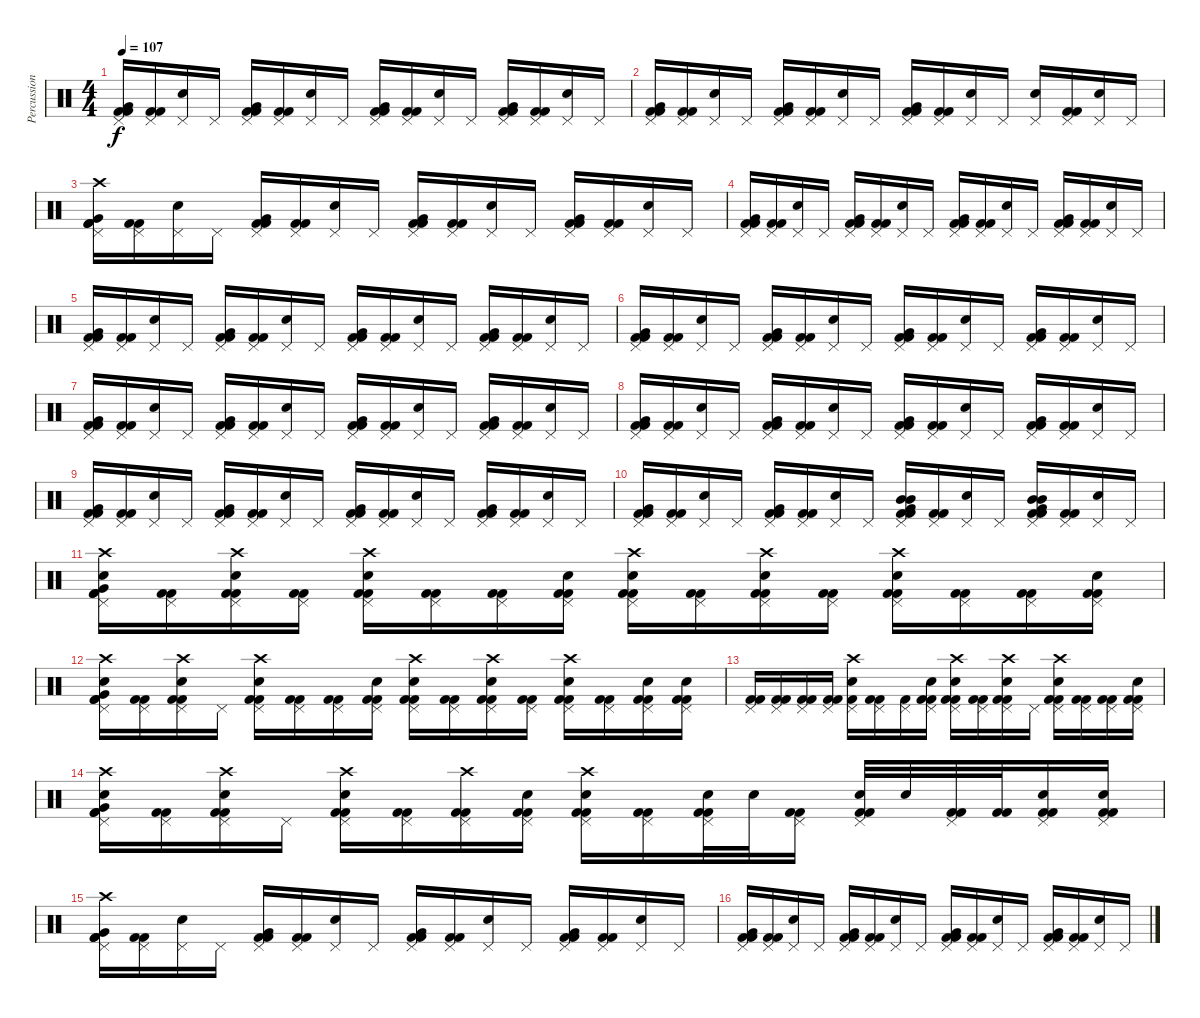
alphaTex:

\track ("Percussion" "Percussion") {instrument percussion}
\staff {score}
\articulation defaults
\ts (4 4)
\tempo 107
\clef neutral
\ks c
("Pedal Hi-Hat (hit)" "Very Low Tom (hit)" "Kick (hit) 2" "Kick (hit) 2").16{dy f} ("Pedal Hi-Hat (hit)" "Kick (hit) 2" "Kick (hit) 2").16 ("Pedal Hi-Hat (hit)" "Electric Snare (hit)").16 "Pedal Hi-Hat (hit)".16 ("Pedal Hi-Hat (hit)" "Very Low Tom (hit)" "Kick (hit) 2" "Kick (hit) 2").16 ("Pedal Hi-Hat (hit)" "Kick (hit) 2" "Kick (hit) 2").16 ("Pedal Hi-Hat (hit)" "Electric Snare (hit)").16 "Pedal Hi-Hat (hit)".16 ("Pedal Hi-Hat (hit)" "Very Low Tom (hit)" "Kick (hit) 2" "Kick (hit) 2").16 ("Pedal Hi-Hat (hit)" "Kick (hit) 2" "Kick (hit) 2").16 ("Pedal Hi-Hat (hit)" "Electric Snare (hit)").16 "Pedal Hi-Hat (hit)".16 ("Pedal Hi-Hat (hit)" "Very Low Tom (hit)" "Kick (hit) 2" "Kick (hit) 2").16 ("Pedal Hi-Hat (hit)" "Kick (hit) 2" "Kick (hit) 2").16 ("Pedal Hi-Hat (hit)" "Electric Snare (hit)").16 "Pedal Hi-Hat (hit)".16 |
("Pedal Hi-Hat (hit)" "Very Low Tom (hit)" "Kick (hit) 2" "Kick (hit) 2").16 ("Pedal Hi-Hat (hit)" "Kick (hit) 2" "Kick (hit) 2").16 ("Pedal Hi-Hat (hit)" "Electric Snare (hit)").16 "Pedal Hi-Hat (hit)".16 ("Pedal Hi-Hat (hit)" "Very Low Tom (hit)" "Kick (hit) 2" "Kick (hit) 2").16 ("Pedal Hi-Hat (hit)" "Kick (hit) 2" "Kick (hit) 2").16 ("Pedal Hi-Hat (hit)" "Electric Snare (hit)").16 "Pedal Hi-Hat (hit)".16 ("Pedal Hi-Hat (hit)" "Very Low Tom (hit)" "Kick (hit) 2" "Kick (hit) 2").16 ("Pedal Hi-Hat (hit)" "Kick (hit) 2" "Kick (hit) 2").16 ("Pedal Hi-Hat (hit)" "Electric Snare (hit)").16 "Pedal Hi-Hat (hit)".16 ("Pedal Hi-Hat (hit)" "Electric Snare (hit)").16 ("Pedal Hi-Hat (hit)" "Kick (hit) 2" "Kick (hit) 2").16 ("Pedal Hi-Hat (hit)" "Electric Snare (hit)").16 "Pedal Hi-Hat (hit)".16 |
("Pedal Hi-Hat (hit)" "Crash high (hit)" "Very Low Tom (hit)" "Kick (hit) 2" "Kick (hit) 2").16 ("Pedal Hi-Hat (hit)" "Kick (hit) 2" "Kick (hit) 2").16 ("Pedal Hi-Hat (hit)" "Electric Snare (hit)").16 "Pedal Hi-Hat (hit)".16 ("Pedal Hi-Hat (hit)" "Very Low Tom (hit)" "Kick (hit) 2" "Kick (hit) 2").16 ("Pedal Hi-Hat (hit)" "Kick (hit) 2" "Kick (hit) 2").16 ("Pedal Hi-Hat (hit)" "Electric Snare (hit)").16 "Pedal Hi-Hat (hit)".16 ("Pedal Hi-Hat (hit)" "Very Low Tom (hit)" "Kick (hit) 2" "Kick (hit) 2").16 ("Pedal Hi-Hat (hit)" "Kick (hit) 2" "Kick (hit) 2").16 ("Pedal Hi-Hat (hit)" "Electric Snare (hit)").16 "Pedal Hi-Hat (hit)".16 ("Pedal Hi-Hat (hit)" "Very Low Tom (hit)" "Kick (hit) 2" "Kick (hit) 2").16 ("Pedal Hi-Hat (hit)" "Kick (hit) 2" "Kick (hit) 2").16 ("Pedal Hi-Hat (hit)" "Electric Snare (hit)").16 "Pedal Hi-Hat (hit)".16 |
("Pedal Hi-Hat (hit)" "Very Low Tom (hit)" "Kick (hit) 2" "Kick (hit) 2").16 ("Pedal Hi-Hat (hit)" "Kick (hit) 2" "Kick (hit) 2").16 ("Pedal Hi-Hat (hit)" "Electric Snare (hit)").16 "Pedal Hi-Hat (hit)".16 ("Pedal Hi-Hat (hit)" "Very Low Tom (hit)" "Kick (hit) 2" "Kick (hit) 2").16 ("Pedal Hi-Hat (hit)" "Kick (hit) 2" "Kick (hit) 2").16 ("Pedal Hi-Hat (hit)" "Electric Snare (hit)").16 "Pedal Hi-Hat (hit)".16 ("Pedal Hi-Hat (hit)" "Very Low Tom (hit)" "Kick (hit) 2" "Kick (hit) 2").16 ("Pedal Hi-Hat (hit)" "Kick (hit) 2" "Kick (hit) 2").16 ("Pedal Hi-Hat (hit)" "Electric Snare (hit)").16 "Pedal Hi-Hat (hit)".16 ("Pedal Hi-Hat (hit)" "Very Low Tom (hit)" "Kick (hit) 2" "Kick (hit) 2").16 ("Pedal Hi-Hat (hit)" "Kick (hit) 2" "Kick (hit) 2").16 ("Pedal Hi-Hat (hit)" "Electric Snare (hit)").16 "Pedal Hi-Hat (hit)".16 |
("Pedal Hi-Hat (hit)" "Very Low Tom (hit)" "Kick (hit) 2" "Kick (hit) 2").16 ("Pedal Hi-Hat (hit)" "Kick (hit) 2" "Kick (hit) 2").16 ("Pedal Hi-Hat (hit)" "Electric Snare (hit)").16 "Pedal Hi-Hat (hit)".16 ("Pedal Hi-Hat (hit)" "Very Low Tom (hit)" "Kick (hit) 2" "Kick (hit) 2").16 ("Pedal Hi-Hat (hit)" "Kick (hit) 2" "Kick (hit) 2").16 ("Pedal Hi-Hat (hit)" "Electric Snare (hit)").16 "Pedal Hi-Hat (hit)".16 ("Pedal Hi-Hat (hit)" "Very Low Tom (hit)" "Kick (hit) 2" "Kick (hit) 2").16 ("Pedal Hi-Hat (hit)" "Kick (hit) 2" "Kick (hit) 2").16 ("Pedal Hi-Hat (hit)" "Electric Snare (hit)").16 "Pedal Hi-Hat (hit)".16 ("Pedal Hi-Hat (hit)" "Very Low Tom (hit)" "Kick (hit) 2" "Kick (hit) 2").16 ("Pedal Hi-Hat (hit)" "Kick (hit) 2" "Kick (hit) 2").16 ("Pedal Hi-Hat (hit)" "Electric Snare (hit)").16 "Pedal Hi-Hat (hit)".16 |
("Pedal Hi-Hat (hit)" "Very Low Tom (hit)" "Kick (hit) 2" "Kick (hit) 2").16 ("Pedal Hi-Hat (hit)" "Kick (hit) 2" "Kick (hit) 2").16 ("Pedal Hi-Hat (hit)" "Electric Snare (hit)").16 "Pedal Hi-Hat (hit)".16 ("Pedal Hi-Hat (hit)" "Very Low Tom (hit)" "Kick (hit) 2" "Kick (hit) 2").16 ("Pedal Hi-Hat (hit)" "Kick (hit) 2" "Kick (hit) 2").16 ("Pedal Hi-Hat (hit)" "Electric Snare (hit)").16 "Pedal Hi-Hat (hit)".16 ("Pedal Hi-Hat (hit)" "Very Low Tom (hit)" "Kick (hit) 2" "Kick (hit) 2").16 ("Pedal Hi-Hat (hit)" "Kick (hit) 2" "Kick (hit) 2").16 ("Pedal Hi-Hat (hit)" "Electric Snare (hit)").16 "Pedal Hi-Hat (hit)".16 ("Pedal Hi-Hat (hit)" "Very Low Tom (hit)" "Kick (hit) 2" "Kick (hit) 2").16 ("Pedal Hi-Hat (hit)" "Kick (hit) 2" "Kick (hit) 2").16 ("Pedal Hi-Hat (hit)" "Electric Snare (hit)").16 "Pedal Hi-Hat (hit)".16 |
("Pedal Hi-Hat (hit)" "Very Low Tom (hit)" "Kick (hit) 2" "Kick (hit) 2").16 ("Pedal Hi-Hat (hit)" "Kick (hit) 2" "Kick (hit) 2").16 ("Pedal Hi-Hat (hit)" "Electric Snare (hit)").16 "Pedal Hi-Hat (hit)".16 ("Pedal Hi-Hat (hit)" "Very Low Tom (hit)" "Kick (hit) 2" "Kick (hit) 2").16 ("Pedal Hi-Hat (hit)" "Kick (hit) 2" "Kick (hit) 2").16 ("Pedal Hi-Hat (hit)" "Electric Snare (hit)").16 "Pedal Hi-Hat (hit)".16 ("Pedal Hi-Hat (hit)" "Very Low Tom (hit)" "Kick (hit) 2" "Kick (hit) 2").16 ("Pedal Hi-Hat (hit)" "Kick (hit) 2" "Kick (hit) 2").16 ("Pedal Hi-Hat (hit)" "Electric Snare (hit)").16 "Pedal Hi-Hat (hit)".16 ("Pedal Hi-Hat (hit)" "Very Low Tom (hit)" "Kick (hit) 2" "Kick (hit) 2").16 ("Pedal Hi-Hat (hit)" "Kick (hit) 2" "Kick (hit) 2").16 ("Pedal Hi-Hat (hit)" "Electric Snare (hit)").16 "Pedal Hi-Hat (hit)".16 |
("Pedal Hi-Hat (hit)" "Very Low Tom (hit)" "Kick (hit) 2" "Kick (hit) 2").16 ("Pedal Hi-Hat (hit)" "Kick (hit) 2" "Kick (hit) 2").16 ("Pedal Hi-Hat (hit)" "Electric Snare (hit)").16 "Pedal Hi-Hat (hit)".16 ("Pedal Hi-Hat (hit)" "Very Low Tom (hit)" "Kick (hit) 2" "Kick (hit) 2").16 ("Pedal Hi-Hat (hit)" "Kick (hit) 2" "Kick (hit) 2").16 ("Pedal Hi-Hat (hit)" "Electric Snare (hit)").16 "Pedal Hi-Hat (hit)".16 ("Pedal Hi-Hat (hit)" "Very Low Tom (hit)" "Kick (hit) 2" "Kick (hit) 2").16 ("Pedal Hi-Hat (hit)" "Kick (hit) 2" "Kick (hit) 2").16 ("Pedal Hi-Hat (hit)" "Electric Snare (hit)").16 "Pedal Hi-Hat (hit)".16 ("Pedal Hi-Hat (hit)" "Very Low Tom (hit)" "Kick (hit) 2" "Kick (hit) 2").16 ("Pedal Hi-Hat (hit)" "Kick (hit) 2" "Kick (hit) 2").16 ("Pedal Hi-Hat (hit)" "Electric Snare (hit)").16 "Pedal Hi-Hat (hit)".16 |
("Pedal Hi-Hat (hit)" "Very Low Tom (hit)" "Kick (hit) 2" "Kick (hit) 2").16 ("Pedal Hi-Hat (hit)" "Kick (hit) 2" "Kick (hit) 2").16 ("Pedal Hi-Hat (hit)" "Electric Snare (hit)").16 "Pedal Hi-Hat (hit)".16 ("Pedal Hi-Hat (hit)" "Very Low Tom (hit)" "Kick (hit) 2" "Kick (hit) 2").16 ("Pedal Hi-Hat (hit)" "Kick (hit) 2" "Kick (hit) 2").16 ("Pedal Hi-Hat (hit)" "Electric Snare (hit)").16 "Pedal Hi-Hat (hit)".16 ("Pedal Hi-Hat (hit)" "Very Low Tom (hit)" "Kick (hit) 2" "Kick (hit) 2").16 ("Pedal Hi-Hat (hit)" "Kick (hit) 2" "Kick (hit) 2").16 ("Pedal Hi-Hat (hit)" "Electric Snare (hit)").16 "Pedal Hi-Hat (hit)".16 ("Pedal Hi-Hat (hit)" "Very Low Tom (hit)" "Kick (hit) 2" "Kick (hit) 2").16 ("Pedal Hi-Hat (hit)" "Kick (hit) 2" "Kick (hit) 2").16 ("Pedal Hi-Hat (hit)" "Electric Snare (hit)").16 "Pedal Hi-Hat (hit)".16 |
("Pedal Hi-Hat (hit)" "Very Low Tom (hit)" "Kick (hit) 2" "Kick (hit) 2").16 ("Pedal Hi-Hat (hit)" "Kick (hit) 2" "Kick (hit) 2").16 ("Pedal Hi-Hat (hit)" "Electric Snare (hit)").16 "Pedal Hi-Hat (hit)".16 ("Pedal Hi-Hat (hit)" "Very Low Tom (hit)" "Kick (hit) 2" "Kick (hit) 2").16 ("Pedal Hi-Hat (hit)" "Kick (hit) 2" "Kick (hit) 2").16 ("Pedal Hi-Hat (hit)" "Electric Snare (hit)").16 "Pedal Hi-Hat (hit)".16 ("Pedal Hi-Hat (hit)" "Mid Tom (hit)" "Very Low Tom (hit)" "Kick (hit) 2" "Kick (hit) 2" "Mid Tom (hit)").16 ("Pedal Hi-Hat (hit)" "Kick (hit) 2" "Kick (hit) 2").16 ("Pedal Hi-Hat (hit)" "Electric Snare (hit)").16 "Pedal Hi-Hat (hit)".16 ("Pedal Hi-Hat (hit)" "Mid Tom (hit)" "Very Low Tom (hit)" "Kick (hit) 2" "Kick (hit) 2" "Mid Tom (hit)").16 ("Pedal Hi-Hat (hit)" "Kick (hit) 2" "Kick (hit) 2").16 ("Pedal Hi-Hat (hit)" "Electric Snare (hit)").16 "Pedal Hi-Hat (hit)".16 |
("Pedal Hi-Hat (hit)" "Crash high (hit)" "Very Low Tom (hit)" "Electric Snare (hit)" "Kick (hit) 2" "Kick (hit) 2").16 ("Pedal Hi-Hat (hit)" "Kick (hit) 2" "Kick (hit) 2").16 ("Pedal Hi-Hat (hit)" "Crash high (hit)" "Electric Snare (hit)" "Kick (hit) 2" "Kick (hit) 2").16 ("Pedal Hi-Hat (hit)" "Kick (hit) 2" "Kick (hit) 2").16 ("Pedal Hi-Hat (hit)" "Crash high (hit)" "Electric Snare (hit)" "Kick (hit) 2" "Kick (hit) 2").16 ("Pedal Hi-Hat (hit)" "Kick (hit) 2" "Kick (hit) 2").16 ("Pedal Hi-Hat (hit)" "Kick (hit) 2" "Kick (hit) 2").16 ("Pedal Hi-Hat (hit)" "Electric Snare (hit)" "Kick (hit) 2" "Kick (hit) 2").16 ("Pedal Hi-Hat (hit)" "Crash high (hit)" "Electric Snare (hit)" "Kick (hit) 2" "Kick (hit) 2").16 ("Pedal Hi-Hat (hit)" "Kick (hit) 2" "Kick (hit) 2").16 ("Pedal Hi-Hat (hit)" "Crash high (hit)" "Electric Snare (hit)" "Kick (hit) 2" "Kick (hit) 2").16 ("Pedal Hi-Hat (hit)" "Kick (hit) 2" "Kick (hit) 2").16 ("Pedal Hi-Hat (hit)" "Crash high (hit)" "Electric Snare (hit)" "Kick (hit) 2" "Kick (hit) 2").16 ("Pedal Hi-Hat (hit)" "Kick (hit) 2" "Kick (hit) 2").16 ("Pedal Hi-Hat (hit)" "Kick (hit) 2" "Kick (hit) 2").16 ("Pedal Hi-Hat (hit)" "Electric Snare (hit)" "Kick (hit) 2" "Kick (hit) 2").16 |
("Pedal Hi-Hat (hit)" "Crash high (hit)" "Very Low Tom (hit)" "Electric Snare (hit)" "Kick (hit) 2" "Kick (hit) 2").16 ("Pedal Hi-Hat (hit)" "Kick (hit) 2" "Kick (hit) 2").16 ("Pedal Hi-Hat (hit)" "Crash high (hit)" "Electric Snare (hit)" "Kick (hit) 2" "Kick (hit) 2").16 "Pedal Hi-Hat (hit)".16 ("Pedal Hi-Hat (hit)" "Crash high (hit)" "Electric Snare (hit)" "Kick (hit) 2" "Kick (hit) 2").16 ("Pedal Hi-Hat (hit)" "Kick (hit) 2" "Kick (hit) 2").16 ("Pedal Hi-Hat (hit)" "Kick (hit) 2" "Kick (hit) 2").16 ("Pedal Hi-Hat (hit)" "Electric Snare (hit)" "Kick (hit) 2" "Kick (hit) 2").16 ("Pedal Hi-Hat (hit)" "Crash high (hit)" "Electric Snare (hit)" "Kick (hit) 2" "Kick (hit) 2").16 ("Pedal Hi-Hat (hit)" "Kick (hit) 2" "Kick (hit) 2").16 ("Pedal Hi-Hat (hit)" "Crash high (hit)" "Electric Snare (hit)" "Kick (hit) 2" "Kick (hit) 2").16 ("Pedal Hi-Hat (hit)" "Kick (hit) 2" "Kick (hit) 2").16 ("Pedal Hi-Hat (hit)" "Crash high (hit)" "Electric Snare (hit)" "Kick (hit) 2" "Kick (hit) 2").16 ("Pedal Hi-Hat (hit)" "Kick (hit) 2" "Kick (hit) 2").16 ("Pedal Hi-Hat (hit)" "Electric Snare (hit)" "Kick (hit) 2" "Kick (hit) 2").16 ("Pedal Hi-Hat (hit)" "Electric Snare (hit)" "Kick (hit) 2" "Kick (hit) 2").16 |
("Pedal Hi-Hat (hit)" "Kick (hit) 2" "Kick (hit) 2").16 ("Pedal Hi-Hat (hit)" "Kick (hit) 2" "Kick (hit) 2").16 ("Pedal Hi-Hat (hit)" "Kick (hit) 2" "Kick (hit) 2").16 ("Pedal Hi-Hat (hit)" "Kick (hit) 2" "Kick (hit) 2").16 ("Pedal Hi-Hat (hit)" "Crash high (hit)" "Electric Snare (hit)" "Kick (hit) 2").16 ("Pedal Hi-Hat (hit)" "Kick (hit) 2" "Kick (hit) 2").16 ("Pedal Hi-Hat (hit)" "Kick (hit) 2").16 ("Pedal Hi-Hat (hit)" "Electric Snare (hit)" "Kick (hit) 2" "Kick (hit) 2").16 ("Pedal Hi-Hat (hit)" "Crash high (hit)" "Electric Snare (hit)" "Kick (hit) 2" "Kick (hit) 2").16 ("Pedal Hi-Hat (hit)" "Kick (hit) 2" "Kick (hit) 2").16 ("Pedal Hi-Hat (hit)" "Crash high (hit)" "Kick (hit) 2" "Electric Snare (hit)" "Kick (hit) 2").16 "Pedal Hi-Hat (hit)".16 ("Pedal Hi-Hat (hit)" "Crash high (hit)" "Kick (hit) 2" "Electric Snare (hit)" "Kick (hit) 2").16 ("Pedal Hi-Hat (hit)" "Kick (hit) 2" "Kick (hit) 2").16 ("Pedal Hi-Hat (hit)" "Kick (hit) 2" "Kick (hit) 2").16 ("Pedal Hi-Hat (hit)" "Kick (hit) 2" "Electric Snare (hit)" "Kick (hit) 2").16 |
("Pedal Hi-Hat (hit)" "Crash high (hit)" "Very Low Tom (hit)" "Electric Snare (hit)" "Kick (hit) 2" "Kick (hit) 2").16 ("Pedal Hi-Hat (hit)" "Kick (hit) 2" "Kick (hit) 2").16 ("Pedal Hi-Hat (hit)" "Crash high (hit)" "Electric Snare (hit)" "Kick (hit) 2" "Kick (hit) 2").16 "Pedal Hi-Hat (hit)".16 ("Pedal Hi-Hat (hit)" "Crash high (hit)" "Electric Snare (hit)" "Kick (hit) 2" "Kick (hit) 2").16 ("Pedal Hi-Hat (hit)" "Kick (hit) 2" "Kick (hit) 2").16 ("Pedal Hi-Hat (hit)" "Crash high (hit)" "Kick (hit) 2" "Kick (hit) 2").16 ("Pedal Hi-Hat (hit)" "Electric Snare (hit)" "Kick (hit) 2" "Kick (hit) 2").16 ("Pedal Hi-Hat (hit)" "Crash high (hit)" "Electric Snare (hit)" "Kick (hit) 2" "Kick (hit) 2").16 ("Pedal Hi-Hat (hit)" "Kick (hit) 2" "Kick (hit) 2").16 ("Pedal Hi-Hat (hit)" "Electric Snare (hit)" "Kick (hit) 2" "Kick (hit) 2").32 "Electric Snare (hit)".32 ("Pedal Hi-Hat (hit)" "Kick (hit) 2" "Kick (hit) 2").16 ("Pedal Hi-Hat (hit)" "Electric Snare (hit)" "Kick (hit) 2" "Kick (hit) 2").32 "Electric Snare (hit)".32 ("Pedal Hi-Hat (hit)" "Kick (hit) 2" "Kick (hit) 2").32 ("Kick (hit) 2" "Kick (hit) 2").32 ("Pedal Hi-Hat (hit)" "Electric Snare (hit)" "Kick (hit) 2" "Kick (hit) 2").16 ("Pedal Hi-Hat (hit)" "Electric Snare (hit)" "Kick (hit) 2" "Kick (hit) 2").16 |
("Pedal Hi-Hat (hit)" "Crash high (hit)" "Very Low Tom (hit)" "Kick (hit) 2" "Kick (hit) 2").16 ("Pedal Hi-Hat (hit)" "Kick (hit) 2" "Kick (hit) 2").16 ("Pedal Hi-Hat (hit)" "Electric Snare (hit)").16 "Pedal Hi-Hat (hit)".16 ("Pedal Hi-Hat (hit)" "Very Low Tom (hit)" "Kick (hit) 2" "Kick (hit) 2").16 ("Pedal Hi-Hat (hit)" "Kick (hit) 2" "Kick (hit) 2").16 ("Pedal Hi-Hat (hit)" "Electric Snare (hit)").16 "Pedal Hi-Hat (hit)".16 ("Pedal Hi-Hat (hit)" "Very Low Tom (hit)" "Kick (hit) 2" "Kick (hit) 2").16 ("Pedal Hi-Hat (hit)" "Kick (hit) 2" "Kick (hit) 2").16 ("Pedal Hi-Hat (hit)" "Electric Snare (hit)").16 "Pedal Hi-Hat (hit)".16 ("Pedal Hi-Hat (hit)" "Very Low Tom (hit)" "Kick (hit) 2" "Kick (hit) 2").16 ("Pedal Hi-Hat (hit)" "Kick (hit) 2" "Kick (hit) 2").16 ("Pedal Hi-Hat (hit)" "Electric Snare (hit)").16 "Pedal Hi-Hat (hit)".16 |
("Pedal Hi-Hat (hit)" "Very Low Tom (hit)" "Kick (hit) 2" "Kick (hit) 2").16 ("Pedal Hi-Hat (hit)" "Kick (hit) 2" "Kick (hit) 2").16 ("Pedal Hi-Hat (hit)" "Electric Snare (hit)").16 "Pedal Hi-Hat (hit)".16 ("Pedal Hi-Hat (hit)" "Very Low Tom (hit)" "Kick (hit) 2" "Kick (hit) 2").16 ("Pedal Hi-Hat (hit)" "Kick (hit) 2" "Kick (hit) 2").16 ("Pedal Hi-Hat (hit)" "Electric Snare (hit)").16 "Pedal Hi-Hat (hit)".16 ("Pedal Hi-Hat (hit)" "Very Low Tom (hit)" "Kick (hit) 2" "Kick (hit) 2").16 ("Pedal Hi-Hat (hit)" "Kick (hit) 2" "Kick (hit) 2").16 ("Pedal Hi-Hat (hit)" "Electric Snare (hit)").16 "Pedal Hi-Hat (hit)".16 ("Pedal Hi-Hat (hit)" "Very Low Tom (hit)" "Kick (hit) 2" "Kick (hit) 2").16 ("Pedal Hi-Hat (hit)" "Kick (hit) 2" "Kick (hit) 2").16 ("Pedal Hi-Hat (hit)" "Electric Snare (hit)").16 "Pedal Hi-Hat (hit)".16
